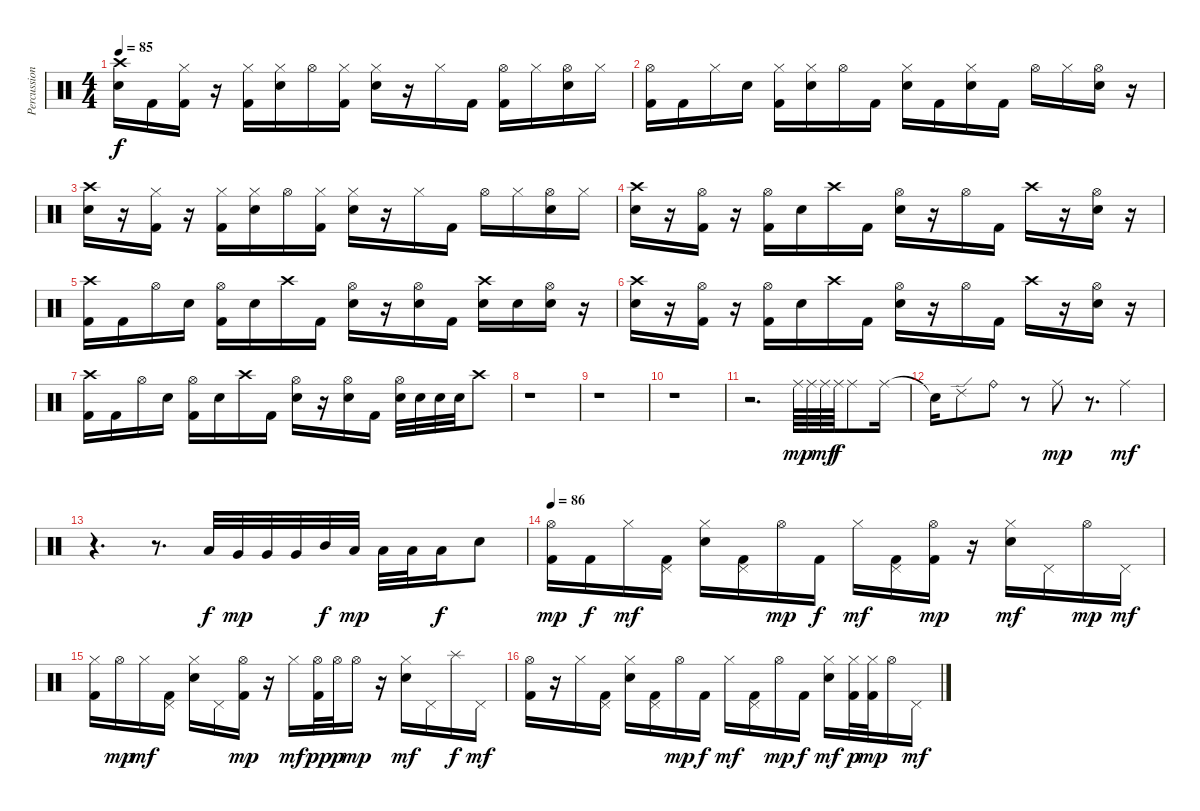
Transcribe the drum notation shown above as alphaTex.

\track ("Percussion" "Percussion") {instrument percussion}
\staff {score}
\articulation defaults
\ts (4 4)
\tempo 85
\clef neutral
\ks c
("Crash high (hit)" "Electric Snare (hit)").16{dy f} "Kick (hit) 2".16 ("Hi-Hat (closed)" "Kick (hit) 2").16 r.16 ("Hi-Hat (closed)" "Kick (hit) 2").16 ("Hi-Hat (closed)" "Electric Snare (hit)").16 "Hi-Hat (open)".16 ("Hi-Hat (closed)" "Kick (hit) 2").16 ("Hi-Hat (closed)" "Electric Snare (hit)").16 r.16 "Hi-Hat (closed)".16 "Kick (hit) 2".16 ("Hi-Hat (open)" "Kick (hit) 2").16 "Hi-Hat (closed)".16 ("Hi-Hat (open)" "Electric Snare (hit)").16 "Hi-Hat (closed)".16 |
("Hi-Hat (open)" "Kick (hit) 2").16 "Kick (hit) 2".16 "Hi-Hat (closed)".16 "Electric Snare (hit)".16 ("Hi-Hat (closed)" "Kick (hit) 2").16 ("Hi-Hat (closed)" "Electric Snare (hit)").16 "Hi-Hat (open)".16 "Kick (hit) 2".16 ("Hi-Hat (closed)" "Electric Snare (hit)").16 "Kick (hit) 2".16 ("Hi-Hat (closed)" "Electric Snare (hit)").16 "Kick (hit) 2".16 "Hi-Hat (open)".16 "Hi-Hat (closed)".16 ("Hi-Hat (open)" "Electric Snare (hit)").16 r.16 |
("Crash high (hit)" "Electric Snare (hit)").16 r.16 ("Hi-Hat (closed)" "Kick (hit) 2").16 r.16 ("Hi-Hat (closed)" "Kick (hit) 2").16 ("Hi-Hat (closed)" "Electric Snare (hit)").16 "Hi-Hat (open)".16 ("Hi-Hat (closed)" "Kick (hit) 2").16 ("Hi-Hat (closed)" "Electric Snare (hit)").16 r.16 "Hi-Hat (closed)".16 "Kick (hit) 2".16 "Hi-Hat (open)".16 "Hi-Hat (closed)".16 ("Hi-Hat (open)" "Electric Snare (hit)").16 "Hi-Hat (closed)".16 |
("Crash high (hit)" "Electric Snare (hit)").16 r.16 ("Hi-Hat (open)" "Kick (hit) 2").16 r.16 ("Hi-Hat (open)" "Kick (hit) 2").16 "Electric Snare (hit)".16 "Crash high (hit)".16 "Kick (hit) 2".16 ("Hi-Hat (open)" "Electric Snare (hit)").16 r.16 "Hi-Hat (open)".16 "Kick (hit) 2".16 "Crash high (hit)".16 r.16 ("Hi-Hat (open)" "Electric Snare (hit)").16 r.16 |
("Crash high (hit)" "Kick (hit) 2").16 "Kick (hit) 2".16 "Hi-Hat (open)".16 "Electric Snare (hit)".16 ("Hi-Hat (open)" "Kick (hit) 2").16 "Electric Snare (hit)".16 "Crash high (hit)".16 "Kick (hit) 2".16 ("Hi-Hat (open)" "Electric Snare (hit)").16 r.16 ("Hi-Hat (open)" "Electric Snare (hit)").16 "Kick (hit) 2".16 ("Crash high (hit)" "Electric Snare (hit)").16 "Electric Snare (hit)".16 ("Hi-Hat (open)" "Electric Snare (hit)").16 r.16 |
("Crash high (hit)" "Electric Snare (hit)").16 r.16 ("Hi-Hat (open)" "Kick (hit) 2").16 r.16 ("Hi-Hat (open)" "Kick (hit) 2").16 "Electric Snare (hit)".16 "Crash high (hit)".16 "Kick (hit) 2".16 ("Hi-Hat (open)" "Electric Snare (hit)").16 r.16 "Hi-Hat (open)".16 "Kick (hit) 2".16 "Crash high (hit)".16 r.16 ("Hi-Hat (open)" "Electric Snare (hit)").16 r.16 |
("Crash high (hit)" "Kick (hit) 2").16 "Kick (hit) 2".16 "Hi-Hat (open)".16 "Electric Snare (hit)".16 ("Hi-Hat (open)" "Kick (hit) 2").16 "Electric Snare (hit)".16 "Crash high (hit)".16 "Kick (hit) 2".16 ("Hi-Hat (open)" "Electric Snare (hit)").16 r.16 ("Hi-Hat (open)" "Electric Snare (hit)").16 "Kick (hit) 2".16 ("Hi-Hat (open)" "Electric Snare (hit)").32 "Electric Snare (hit)".32 "Electric Snare (hit)".32 "Electric Snare (hit)".32 "Crash high (hit)".8 |
r.1 |
r.1 |
r.1 |
r.2{d} "Ride (middle)".64{dy mp} "Ride (middle)".64 "Ride (middle)".64{dy mf} "Ride (middle)".64{dy f} "Ride (middle)".8 "Ride (middle)".16 |
"Snare (hit)"{t}.16 "Ride (edge) 2".8 "Ride (bell)".8 r.8 "Ride (middle)".8{dy mp} r.8{d} "Ride (middle)".4{dy mf} |
r.4{d} r.8{d} "Low Tom (hit)".32{dy f} "Very Low Tom (hit)".32{dy mp} "Very Low Tom (hit)".32 "Very Low Tom (hit)".32 "Mid Tom (hit)".32{dy f} "Low Floor Tom (hit)".32{dy mp} "Low Floor Tom (hit)".32 "Low Floor Tom (hit)".32 "Low Tom (hit)".16{dy f} "Electric Snare (hit)".8 |
\tempo 86
("Hi-Hat (open)" "Kick (hit) 2").16{dy mp volume 14} "Kick (hit) 2".16{dy f} "Hi-Hat (closed)".16{dy mf} ("Pedal Hi-Hat (hit)" "Kick (hit) 2").16 ("Hi-Hat (closed)" "Electric Snare (hit)").16 ("Pedal Hi-Hat (hit)" "Kick (hit) 2").16 "Hi-Hat (open)".16{dy mp} "Kick (hit) 2".16{dy f} "Hi-Hat (closed)".16{dy mf} ("Pedal Hi-Hat (hit)" "Kick (hit) 2").16 ("Hi-Hat (open)" "Kick (hit) 2").16{dy mp} r.16 ("Hi-Hat (closed)" "Electric Snare (hit)").16{dy mf} "Pedal Hi-Hat (hit)".16 "Hi-Hat (open)".16{dy mp} "Pedal Hi-Hat (hit)".16{dy mf} |
("Hi-Hat (closed)" "Kick (hit) 2").16 "Hi-Hat (open)".16{dy mp} "Hi-Hat (closed)".16{dy mf} ("Pedal Hi-Hat (hit)" "Kick (hit) 2").16 ("Hi-Hat (closed)" "Electric Snare (hit)").16 "Pedal Hi-Hat (hit)".16 ("Hi-Hat (open)" "Kick (hit) 2").16{dy mp} r.16 "Hi-Hat (closed)".16{dy mf} ("Hi-Hat (open)" "Kick (hit) 2").32{dy pp} "Hi-Hat (open)".32{dy p} "Hi-Hat (open)".16{dy mp} r.16 ("Hi-Hat (closed)" "Electric Snare (hit)").16{dy mf} "Pedal Hi-Hat (hit)".16 "Splash (hit)".16{dy f} "Pedal Hi-Hat (hit)".16{dy mf} |
("Hi-Hat (open)" "Kick (hit) 2").16 r.16 "Hi-Hat (closed)".16 ("Pedal Hi-Hat (hit)" "Kick (hit) 2").16 ("Hi-Hat (closed)" "Electric Snare (hit)").16 ("Pedal Hi-Hat (hit)" "Kick (hit) 2").16 "Hi-Hat (open)".16{dy mp} "Kick (hit) 2".16{dy f} "Hi-Hat (closed)".16{dy mf} ("Pedal Hi-Hat (hit)" "Kick (hit) 2").16 "Hi-Hat (open)".16{dy mp} "Kick (hit) 2".16{dy f} ("Hi-Hat (closed)" "Electric Snare (hit)").16{dy mf} ("Hi-Hat (closed)" "Kick (hit) 2").32{dy p} ("Hi-Hat (closed)" "Kick (hit) 2").32{dy mp} "Hi-Hat (open)".16 "Pedal Hi-Hat (hit)".16{dy mf}
